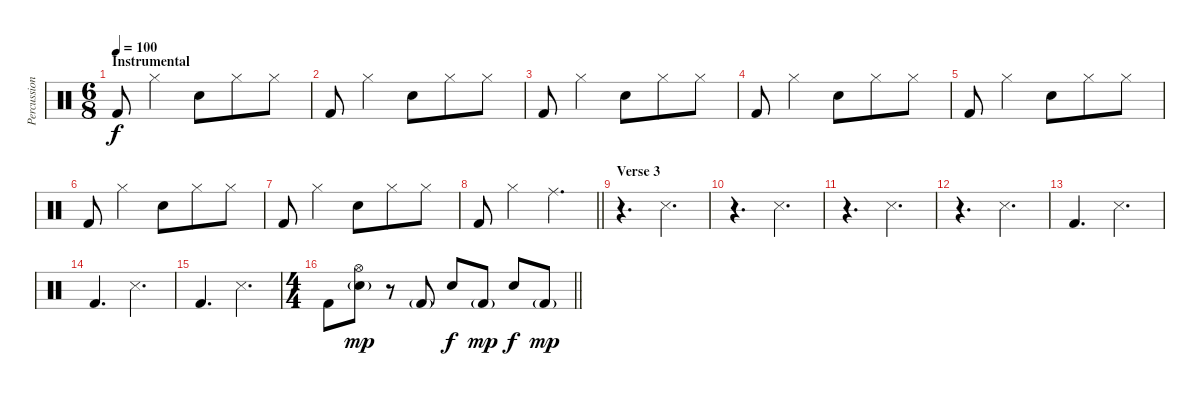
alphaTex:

\track ("Percussion" "Percussion") {instrument percussion}
\staff {score}
\articulation defaults
\ts (6 8)
\section ("" "Instrumental")
\tempo 100
\clef neutral
\ks c "Kick (hit) 2".8{dy f} "Hi-Hat (closed)".4 "Snare (hit) 2".8 "Hi-Hat (closed)".8 "Hi-Hat (closed)".8
|
"Kick (hit) 2".8 "Hi-Hat (closed)".4 "Snare (hit) 2".8 "Hi-Hat (closed)".8 "Hi-Hat (closed)".8 |
"Kick (hit) 2".8 "Hi-Hat (closed)".4 "Snare (hit) 2".8 "Hi-Hat (closed)".8 "Hi-Hat (closed)".8 |
"Kick (hit) 2".8 "Hi-Hat (closed)".4 "Snare (hit) 2".8 "Hi-Hat (closed)".8 "Hi-Hat (closed)".8 |
"Kick (hit) 2".8 "Hi-Hat (closed)".4 "Snare (hit) 2".8 "Hi-Hat (closed)".8 "Hi-Hat (closed)".8 |
"Kick (hit) 2".8 "Hi-Hat (closed)".4 "Snare (hit) 2".8 "Hi-Hat (closed)".8 "Hi-Hat (closed)".8 |
"Kick (hit) 2".8 "Hi-Hat (closed)".4 "Snare (hit) 2".8 "Hi-Hat (closed)".8 "Hi-Hat (closed)".8 |
\barLineRight lightlight "Kick (hit) 2".8 "Hi-Hat (closed)".4 "Ride (middle)".4{d}
|
\section ("" "Verse 3")
r.4{d} "Snare (side stick) 3".4{d} |
r.4{d} "Snare (side stick) 3".4{d} |
r.4{d} "Snare (side stick) 3".4{d} |
r.4{d} "Snare (side stick) 3".4{d} |
"Kick (hit) 2".4{d} "Snare (side stick) 3".4{d} |
"Kick (hit) 2".4{d} "Snare (side stick) 3".4{d} |
"Kick (hit) 2".4{d} "Snare (side stick) 3".4{d} |
\ts (4 4)
\barLineRight lightlight "Kick (hit) 2".8
("Hi-Hat (open)" "Snare (hit) 2"{g}).8{dy mp} r.8 "Kick (hit) 2"{g}.8 "Snare (hit) 2".8{dy f} "Kick (hit) 2"{g}.8{dy mp} "Snare (hit) 2".8{dy f} "Kick (hit) 2"{g}.8{dy mp}
